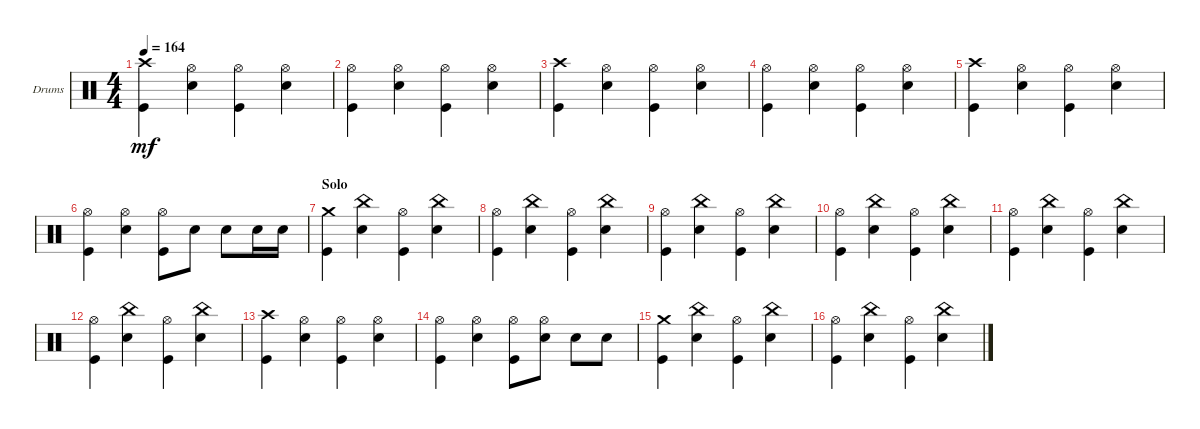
\defaultSystemsLayout 4
\bracketExtendMode groupsimilarinstruments
\firstSystemTrackNameOrientation horizontal
\otherSystemsTrackNameOrientation horizontal
\track ("Drumkit" "Drums") {instrument percussion}
\staff {score}
\articulation defaults
\ts (4 4)
\tempo 164
\clef neutral
\ks c
("Kick (hit)" "Crash high (hit)").4{dy mf} ("Snare (hit) 2" "Hi-Hat (open)").4 ("Kick (hit)" "Hi-Hat (open)").4 ("Snare (hit) 2" "Hi-Hat (open)").4 |
("Kick (hit)" "Hi-Hat (open)").4 ("Snare (hit) 2" "Hi-Hat (open)").4 ("Kick (hit)" "Hi-Hat (open)").4 ("Snare (hit) 2" "Hi-Hat (open)").4 |
("Kick (hit)" "Crash high (hit)").4 ("Snare (hit) 2" "Hi-Hat (open)").4 ("Kick (hit)" "Hi-Hat (open)").4 ("Snare (hit) 2" "Hi-Hat (open)").4 |
("Kick (hit)" "Hi-Hat (open)").4 ("Snare (hit) 2" "Hi-Hat (open)").4 ("Kick (hit)" "Hi-Hat (open)").4 ("Snare (hit) 2" "Hi-Hat (open)").4 |
("Kick (hit)" "Crash high (hit)").4 ("Snare (hit) 2" "Hi-Hat (open)").4 ("Kick (hit)" "Hi-Hat (open)").4 ("Snare (hit) 2" "Hi-Hat (open)").4 |
("Kick (hit)" "Hi-Hat (open)").4 ("Snare (hit) 2" "Hi-Hat (open)").4 ("Kick (hit)" "Hi-Hat (open)").8 "Snare (hit) 2".8 "Snare (hit) 2".8 "Snare (hit) 2".16 "Snare (hit) 2".16 |
\section ("" "Solo")
("Kick (hit)" "Crash medium (hit)").4 ("Snare (hit) 2" "China (hit)").4 ("Kick (hit)" "Hi-Hat (open)").4 ("Snare (hit) 2" "China (hit)").4 |
("Kick (hit)" "Hi-Hat (open)").4 ("Snare (hit) 2" "China (hit)").4 ("Kick (hit)" "Hi-Hat (open)").4 ("Snare (hit) 2" "China (hit)").4 |
("Kick (hit)" "Hi-Hat (open)").4 ("Snare (hit) 2" "China (hit)").4 ("Kick (hit)" "Hi-Hat (open)").4 ("Snare (hit) 2" "China (hit)").4 |
("Kick (hit)" "Hi-Hat (open)").4 ("Snare (hit) 2" "China (hit)").4 ("Kick (hit)" "Hi-Hat (open)").4 ("Snare (hit) 2" "China (hit)").4 |
("Kick (hit)" "Hi-Hat (open)").4 ("Snare (hit) 2" "China (hit)").4 ("Kick (hit)" "Hi-Hat (open)").4 ("Snare (hit) 2" "China (hit)").4 |
("Kick (hit)" "Hi-Hat (open)").4 ("Snare (hit) 2" "China (hit)").4 ("Kick (hit)" "Hi-Hat (open)").4 ("Snare (hit) 2" "China (hit)").4 |
("Kick (hit)" "Crash high (hit)").4 ("Snare (hit) 2" "Hi-Hat (open)").4 ("Kick (hit)" "Hi-Hat (open)").4 ("Snare (hit) 2" "Hi-Hat (open)").4 |
("Kick (hit)" "Hi-Hat (open)").4 ("Snare (hit) 2" "Hi-Hat (open)").4 ("Kick (hit)" "Hi-Hat (open)").8 ("Snare (hit) 2" "Hi-Hat (open)").8 "Snare (hit) 2".8 "Snare (hit) 2".8 |
("Kick (hit)" "Crash medium (hit)").4 ("Snare (hit) 2" "China (hit)").4 ("Kick (hit)" "Hi-Hat (open)").4 ("Snare (hit) 2" "China (hit)").4 |
("Kick (hit)" "Hi-Hat (open)").4 ("Snare (hit) 2" "China (hit)").4 ("Kick (hit)" "Hi-Hat (open)").4 ("Snare (hit) 2" "China (hit)").4
